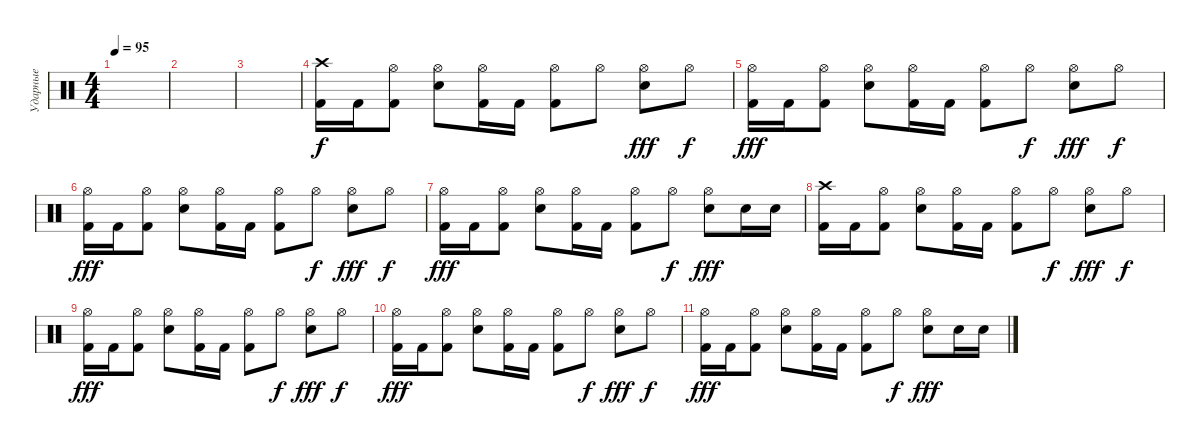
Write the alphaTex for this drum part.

\track ("Ударные" "Ударные") {instrument percussion}
\staff {score}
\articulation defaults
\ts (4 4)
\tempo 95
\clef neutral
\ks c
|
|
|
("Crash high (hit)" "Kick (hit) 2").16 "Kick (hit) 2".16 ("Hi-Hat (open)" "Kick (hit) 2").8 ("Hi-Hat (open)" "Electric Snare (hit)").8 ("Hi-Hat (open)" "Kick (hit) 2").16 "Kick (hit) 2".16 ("Hi-Hat (open)" "Kick (hit) 2").8 "Hi-Hat (open)".8{dy f} ("Hi-Hat (open)" "Electric Snare (hit)").8{dy fff} "Hi-Hat (open)".8{dy f} |
("Hi-Hat (open)" "Kick (hit) 2").16{dy fff} "Kick (hit) 2".16 ("Hi-Hat (open)" "Kick (hit) 2").8 ("Hi-Hat (open)" "Electric Snare (hit)").8 ("Hi-Hat (open)" "Kick (hit) 2").16 "Kick (hit) 2".16 ("Hi-Hat (open)" "Kick (hit) 2").8 "Hi-Hat (open)".8{dy f} ("Hi-Hat (open)" "Electric Snare (hit)").8{dy fff} "Hi-Hat (open)".8{dy f} |
("Hi-Hat (open)" "Kick (hit) 2").16{dy fff} "Kick (hit) 2".16 ("Hi-Hat (open)" "Kick (hit) 2").8 ("Hi-Hat (open)" "Electric Snare (hit)").8 ("Hi-Hat (open)" "Kick (hit) 2").16 "Kick (hit) 2".16 ("Hi-Hat (open)" "Kick (hit) 2").8 "Hi-Hat (open)".8{dy f} ("Hi-Hat (open)" "Electric Snare (hit)").8{dy fff} "Hi-Hat (open)".8{dy f} |
("Hi-Hat (open)" "Kick (hit) 2").16{dy fff} "Kick (hit) 2".16 ("Hi-Hat (open)" "Kick (hit) 2").8 ("Hi-Hat (open)" "Electric Snare (hit)").8 ("Hi-Hat (open)" "Kick (hit) 2").16 "Kick (hit) 2".16 ("Hi-Hat (open)" "Kick (hit) 2").8 "Hi-Hat (open)".8{dy f} ("Hi-Hat (open)" "Electric Snare (hit)").8{dy fff} "Electric Snare (hit)".16 "Electric Snare (hit)".16 |
("Crash high (hit)" "Kick (hit) 2").16 "Kick (hit) 2".16 ("Hi-Hat (open)" "Kick (hit) 2").8 ("Hi-Hat (open)" "Electric Snare (hit)").8 ("Hi-Hat (open)" "Kick (hit) 2").16 "Kick (hit) 2".16 ("Hi-Hat (open)" "Kick (hit) 2").8 "Hi-Hat (open)".8{dy f} ("Hi-Hat (open)" "Electric Snare (hit)").8{dy fff} "Hi-Hat (open)".8{dy f} |
("Hi-Hat (open)" "Kick (hit) 2").16{dy fff} "Kick (hit) 2".16 ("Hi-Hat (open)" "Kick (hit) 2").8 ("Hi-Hat (open)" "Electric Snare (hit)").8 ("Hi-Hat (open)" "Kick (hit) 2").16 "Kick (hit) 2".16 ("Hi-Hat (open)" "Kick (hit) 2").8 "Hi-Hat (open)".8{dy f} ("Hi-Hat (open)" "Electric Snare (hit)").8{dy fff} "Hi-Hat (open)".8{dy f} |
("Hi-Hat (open)" "Kick (hit) 2").16{dy fff} "Kick (hit) 2".16 ("Hi-Hat (open)" "Kick (hit) 2").8 ("Hi-Hat (open)" "Electric Snare (hit)").8 ("Hi-Hat (open)" "Kick (hit) 2").16 "Kick (hit) 2".16 ("Hi-Hat (open)" "Kick (hit) 2").8 "Hi-Hat (open)".8{dy f} ("Hi-Hat (open)" "Electric Snare (hit)").8{dy fff} "Hi-Hat (open)".8{dy f} |
("Hi-Hat (open)" "Kick (hit) 2").16{dy fff} "Kick (hit) 2".16 ("Hi-Hat (open)" "Kick (hit) 2").8 ("Hi-Hat (open)" "Electric Snare (hit)").8 ("Hi-Hat (open)" "Kick (hit) 2").16 "Kick (hit) 2".16 ("Hi-Hat (open)" "Kick (hit) 2").8 "Hi-Hat (open)".8{dy f} ("Hi-Hat (open)" "Electric Snare (hit)").8{dy fff} "Electric Snare (hit)".16 "Electric Snare (hit)".16
